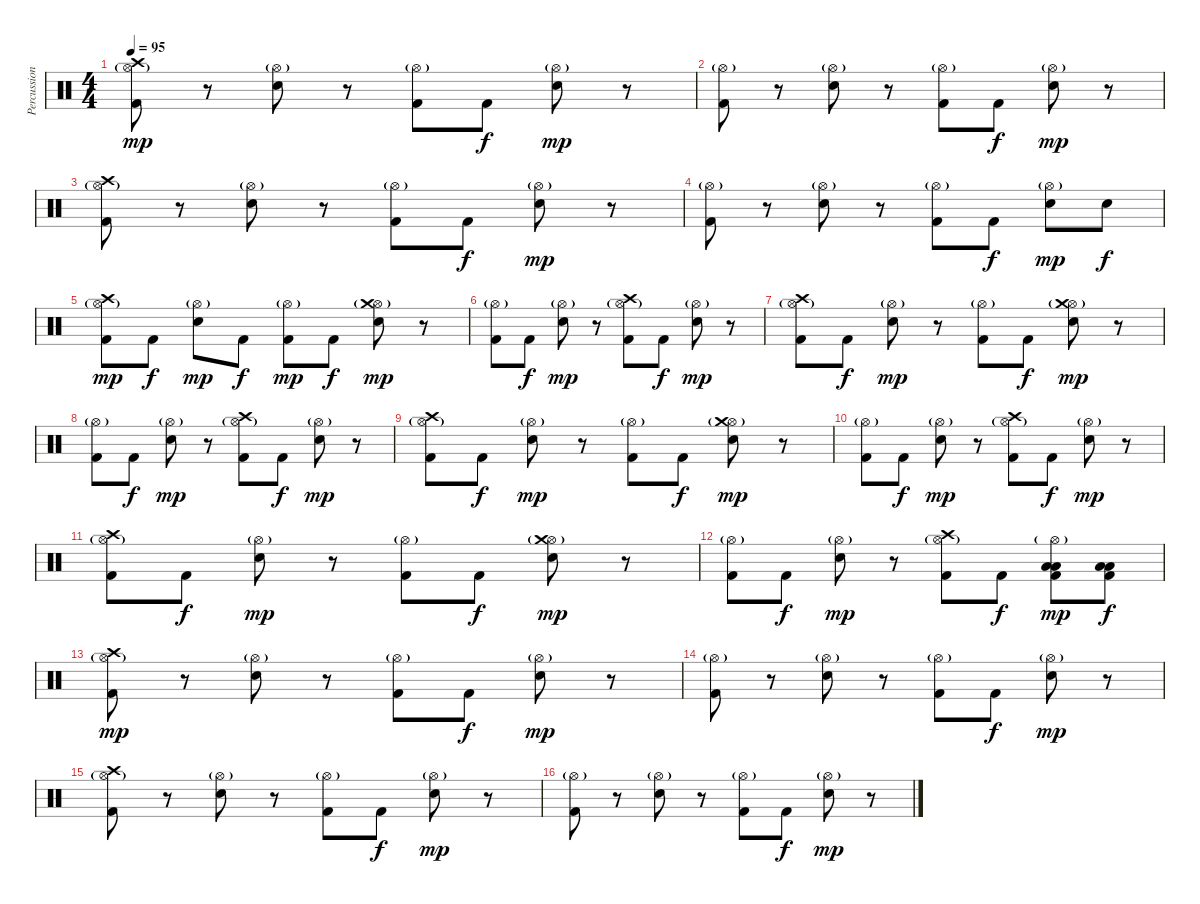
\track ("Percussions" "Percussion") {instrument percussion}
\staff {score}
\articulation defaults
\ts (4 4)
\tempo 95
\clef neutral
\ks c
("Hi-Hat (open)"{g} "Crash high (hit)" "Kick (hit) 2").8{dy mp} r.8 ("Hi-Hat (open)"{g} "Snare (hit) 2").8 r.8 ("Hi-Hat (open)"{g} "Kick (hit) 2").8 "Kick (hit) 2".8{dy f} ("Hi-Hat (open)"{g} "Snare (hit) 2").8{dy mp} r.8 |
("Hi-Hat (open)"{g} "Kick (hit) 2").8 r.8 ("Hi-Hat (open)"{g} "Snare (hit) 2").8 r.8 ("Hi-Hat (open)"{g} "Kick (hit) 2").8 "Kick (hit) 2".8{dy f} ("Hi-Hat (open)"{g} "Snare (hit) 2").8{dy mp} r.8 |
("Hi-Hat (open)"{g} "Crash high (hit)" "Kick (hit) 2").8 r.8 ("Hi-Hat (open)"{g} "Snare (hit) 2").8 r.8 ("Hi-Hat (open)"{g} "Kick (hit) 2").8 "Kick (hit) 2".8{dy f} ("Hi-Hat (open)"{g} "Snare (hit) 2").8{dy mp} r.8 |
("Hi-Hat (open)"{g} "Kick (hit) 2").8 r.8 ("Hi-Hat (open)"{g} "Snare (hit) 2").8 r.8 ("Hi-Hat (open)"{g} "Kick (hit) 2").8 "Kick (hit) 2".8{dy f} ("Hi-Hat (open)"{g} "Snare (hit) 2").8{dy mp} "Snare (hit) 2".8{dy f} |
("Hi-Hat (open)"{g} "Crash high (hit)" "Kick (hit) 2").8{dy mp} "Kick (hit) 2".8{dy f} ("Hi-Hat (open)"{g} "Snare (hit) 2").8{dy mp} "Kick (hit) 2".8{dy f} ("Hi-Hat (open)"{g} "Kick (hit) 2").8{dy mp} "Kick (hit) 2".8{dy f} ("Hi-Hat (open)"{g} "Crash medium (hit)" "Snare (hit) 2").8{dy mp} r.8 |
("Hi-Hat (open)"{g} "Kick (hit) 2").8 "Kick (hit) 2".8{dy f} ("Hi-Hat (open)"{g} "Snare (hit) 2").8{dy mp} r.8 ("Hi-Hat (open)"{g} "Crash high (hit)" "Kick (hit) 2").8 "Kick (hit) 2".8{dy f} ("Hi-Hat (open)"{g} "Snare (hit) 2").8{dy mp} r.8 |
("Hi-Hat (open)"{g} "Crash high (hit)" "Kick (hit) 2").8 "Kick (hit) 2".8{dy f} ("Hi-Hat (open)"{g} "Snare (hit) 2").8{dy mp} r.8 ("Hi-Hat (open)"{g} "Kick (hit) 2").8 "Kick (hit) 2".8{dy f} ("Hi-Hat (open)"{g} "Crash medium (hit)" "Snare (hit) 2").8{dy mp} r.8 |
("Hi-Hat (open)"{g} "Kick (hit) 2").8 "Kick (hit) 2".8{dy f} ("Hi-Hat (open)"{g} "Snare (hit) 2").8{dy mp} r.8 ("Hi-Hat (open)"{g} "Crash high (hit)" "Kick (hit) 2").8 "Kick (hit) 2".8{dy f} ("Hi-Hat (open)"{g} "Snare (hit) 2").8{dy mp} r.8 |
("Hi-Hat (open)"{g} "Crash high (hit)" "Kick (hit) 2").8 "Kick (hit) 2".8{dy f} ("Hi-Hat (open)"{g} "Snare (hit) 2").8{dy mp} r.8 ("Hi-Hat (open)"{g} "Kick (hit) 2").8 "Kick (hit) 2".8{dy f} ("Hi-Hat (open)"{g} "Crash medium (hit)" "Snare (hit) 2").8{dy mp} r.8 |
("Hi-Hat (open)"{g} "Kick (hit) 2").8 "Kick (hit) 2".8{dy f} ("Hi-Hat (open)"{g} "Snare (hit) 2").8{dy mp} r.8 ("Hi-Hat (open)"{g} "Crash high (hit)" "Kick (hit) 2").8 "Kick (hit) 2".8{dy f} ("Hi-Hat (open)"{g} "Snare (hit) 2").8{dy mp} r.8 |
("Hi-Hat (open)"{g} "Crash high (hit)" "Kick (hit) 2").8 "Kick (hit) 2".8{dy f} ("Hi-Hat (open)"{g} "Snare (hit) 2").8{dy mp} r.8 ("Hi-Hat (open)"{g} "Kick (hit) 2").8 "Kick (hit) 2".8{dy f} ("Hi-Hat (open)"{g} "Crash medium (hit)" "Snare (hit) 2").8{dy mp} r.8 |
("Hi-Hat (open)"{g} "Kick (hit) 2").8 "Kick (hit) 2".8{dy f} ("Hi-Hat (open)"{g} "Snare (hit) 2").8{dy mp} r.8 ("Hi-Hat (open)"{g} "Crash high (hit)" "Kick (hit) 2").8 "Kick (hit) 2".8{dy f} ("Hi-Hat (open)"{g} "Low Tom (hit)" "Kick (hit) 2" "Low Floor Tom (hit)").8{dy mp} ("Low Tom (hit)" "Kick (hit) 2" "Low Floor Tom (hit)").8{dy f} |
("Hi-Hat (open)"{g} "Crash high (hit)" "Kick (hit) 2").8{dy mp} r.8 ("Hi-Hat (open)"{g} "Snare (hit) 2").8 r.8 ("Hi-Hat (open)"{g} "Kick (hit) 2").8 "Kick (hit) 2".8{dy f} ("Hi-Hat (open)"{g} "Snare (hit) 2").8{dy mp} r.8 |
("Hi-Hat (open)"{g} "Kick (hit) 2").8 r.8 ("Hi-Hat (open)"{g} "Snare (hit) 2").8 r.8 ("Hi-Hat (open)"{g} "Kick (hit) 2").8 "Kick (hit) 2".8{dy f} ("Hi-Hat (open)"{g} "Snare (hit) 2").8{dy mp} r.8 |
("Hi-Hat (open)"{g} "Crash high (hit)" "Kick (hit) 2").8 r.8 ("Hi-Hat (open)"{g} "Snare (hit) 2").8 r.8 ("Hi-Hat (open)"{g} "Kick (hit) 2").8 "Kick (hit) 2".8{dy f} ("Hi-Hat (open)"{g} "Snare (hit) 2").8{dy mp} r.8 |
("Hi-Hat (open)"{g} "Kick (hit) 2").8 r.8 ("Hi-Hat (open)"{g} "Snare (hit) 2").8 r.8 ("Hi-Hat (open)"{g} "Kick (hit) 2").8 "Kick (hit) 2".8{dy f} ("Hi-Hat (open)"{g} "Snare (hit) 2").8{dy mp} r.8
